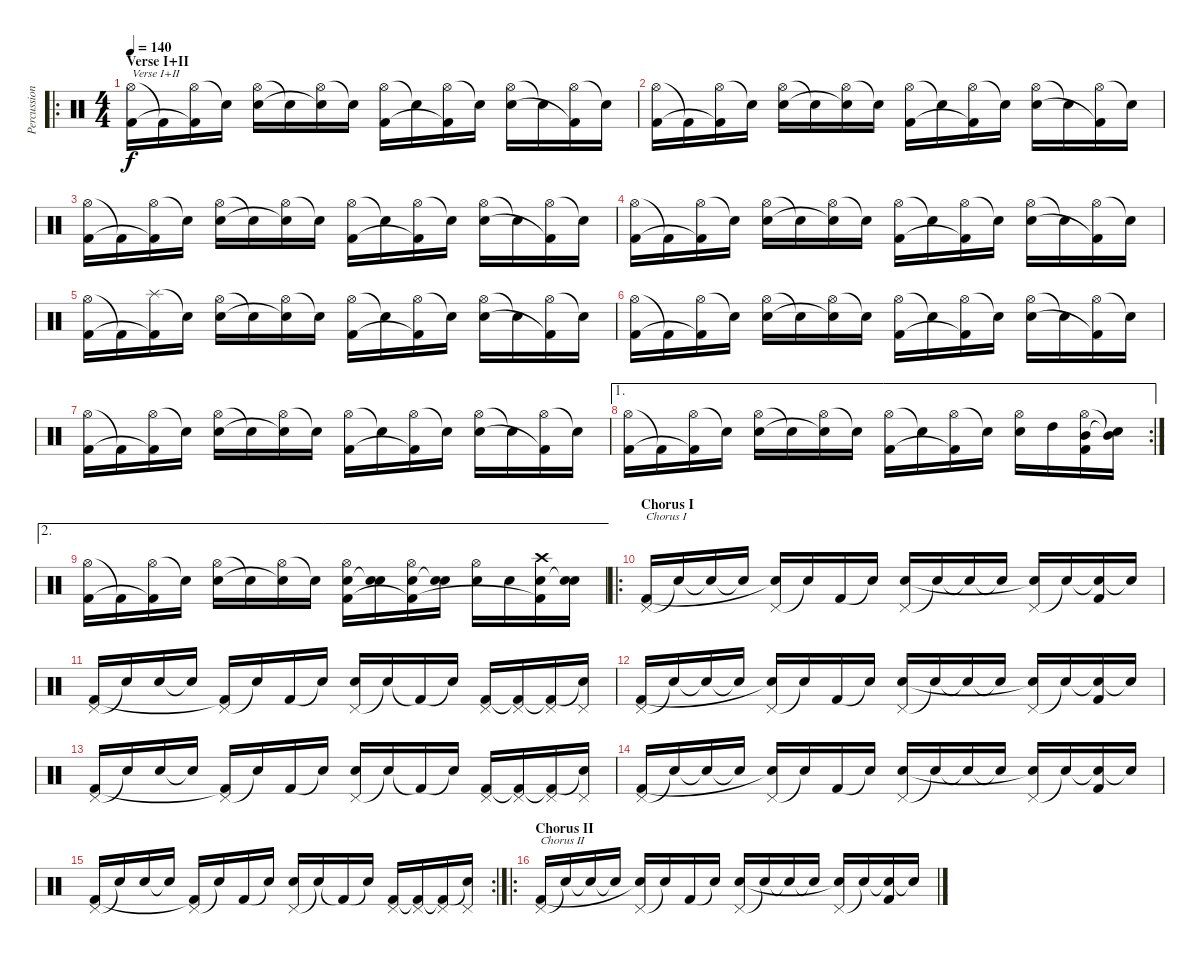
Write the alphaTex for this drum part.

\track ("Percussion" "Percussion") {instrument percussion}
\staff {score}
\articulation defaults
\ro
\ts (4 4)
\section ("" "Verse I+II")
\tempo 140
\clef neutral
\ks c
("Hi-Hat (open)" "Kick (hit) 2").16{txt "Verse I+II" dy f} "Kick (hit) 2"{t}.16 ("Hi-Hat (open)" "Kick (hit) 2"{t}).16 "Snare (hit)"{t}.16 ("Hi-Hat (open)" "Electric Snare (hit)").16 "Snare (hit)"{t}.16 ("Hi-Hat (open)" "Snare (hit)"{t}).16 "Snare (hit)"{t}.16 ("Hi-Hat (open)" "Kick (hit) 2").16 "Snare (hit)"{t}.16 ("Hi-Hat (open)" "Kick (hit) 2"{t}).16 "Snare (hit)"{t}.16 ("Hi-Hat (open)" "Electric Snare (hit)").16 "Snare (hit)"{t}.16 ("Hi-Hat (open)" "Kick (hit) 2"{t}).16 "Snare (hit)"{t}.16 |
("Hi-Hat (open)" "Kick (hit) 2").16 "Kick (hit) 2"{t}.16 ("Hi-Hat (open)" "Kick (hit) 2"{t}).16 "Snare (hit)"{t}.16 ("Hi-Hat (open)" "Electric Snare (hit)").16 "Snare (hit)"{t}.16 ("Hi-Hat (open)" "Snare (hit)"{t}).16 "Snare (hit)"{t}.16 ("Hi-Hat (open)" "Kick (hit) 2").16 "Snare (hit)"{t}.16 ("Hi-Hat (open)" "Kick (hit) 2"{t}).16 "Snare (hit)"{t}.16 ("Hi-Hat (open)" "Electric Snare (hit)").16 "Snare (hit)"{t}.16 ("Hi-Hat (open)" "Kick (hit) 2"{t}).16 "Snare (hit)"{t}.16 |
("Hi-Hat (open)" "Kick (hit) 2").16 "Kick (hit) 2"{t}.16 ("Hi-Hat (open)" "Kick (hit) 2"{t}).16 "Snare (hit)"{t}.16 ("Hi-Hat (open)" "Electric Snare (hit)").16 "Snare (hit)"{t}.16 ("Hi-Hat (open)" "Snare (hit)"{t}).16 "Snare (hit)"{t}.16 ("Hi-Hat (open)" "Kick (hit) 2").16 "Snare (hit)"{t}.16 ("Hi-Hat (open)" "Kick (hit) 2"{t}).16 "Snare (hit)"{t}.16 ("Hi-Hat (open)" "Electric Snare (hit)").16 "Snare (hit)"{t}.16 ("Hi-Hat (open)" "Kick (hit) 2"{t}).16 "Snare (hit)"{t}.16 |
("Hi-Hat (open)" "Kick (hit) 2").16 "Kick (hit) 2"{t}.16 ("Hi-Hat (open)" "Kick (hit) 2"{t}).16 "Snare (hit)"{t}.16 ("Hi-Hat (open)" "Electric Snare (hit)").16 "Snare (hit)"{t}.16 ("Hi-Hat (open)" "Snare (hit)"{t}).16 "Snare (hit)"{t}.16 ("Hi-Hat (open)" "Kick (hit) 2").16 "Snare (hit)"{t}.16 ("Hi-Hat (open)" "Kick (hit) 2"{t}).16 "Snare (hit)"{t}.16 ("Hi-Hat (open)" "Electric Snare (hit)").16 "Snare (hit)"{t}.16 ("Hi-Hat (open)" "Kick (hit) 2"{t}).16 "Snare (hit)"{t}.16 |
("Hi-Hat (open)" "Kick (hit) 2").16 "Kick (hit) 2"{t}.16 ("Splash (hit)" "Kick (hit) 2"{t}).16 "Snare (hit)"{t}.16 ("Hi-Hat (open)" "Electric Snare (hit)").16 "Snare (hit)"{t}.16 ("Hi-Hat (open)" "Snare (hit)"{t}).16 "Snare (hit)"{t}.16 ("Hi-Hat (open)" "Kick (hit) 2").16 "Snare (hit)"{t}.16 ("Hi-Hat (open)" "Kick (hit) 2"{t}).16 "Snare (hit)"{t}.16 ("Hi-Hat (open)" "Electric Snare (hit)").16 "Snare (hit)"{t}.16 ("Hi-Hat (open)" "Kick (hit) 2"{t}).16 "Snare (hit)"{t}.16 |
("Hi-Hat (open)" "Kick (hit) 2").16 "Kick (hit) 2"{t}.16 ("Hi-Hat (open)" "Kick (hit) 2"{t}).16 "Snare (hit)"{t}.16 ("Hi-Hat (open)" "Electric Snare (hit)").16 "Snare (hit)"{t}.16 ("Hi-Hat (open)" "Snare (hit)"{t}).16 "Snare (hit)"{t}.16 ("Hi-Hat (open)" "Kick (hit) 2").16 "Snare (hit)"{t}.16 ("Hi-Hat (open)" "Kick (hit) 2"{t}).16 "Snare (hit)"{t}.16 ("Hi-Hat (open)" "Electric Snare (hit)").16 "Snare (hit)"{t}.16 ("Hi-Hat (open)" "Kick (hit) 2"{t}).16 "Snare (hit)"{t}.16 |
("Hi-Hat (open)" "Kick (hit) 2").16 "Kick (hit) 2"{t}.16 ("Hi-Hat (open)" "Kick (hit) 2"{t}).16 "Snare (hit)"{t}.16 ("Hi-Hat (open)" "Electric Snare (hit)").16 "Snare (hit)"{t}.16 ("Hi-Hat (open)" "Snare (hit)"{t}).16 "Snare (hit)"{t}.16 ("Hi-Hat (open)" "Kick (hit) 2").16 "Snare (hit)"{t}.16 ("Hi-Hat (open)" "Kick (hit) 2"{t}).16 "Snare (hit)"{t}.16 ("Hi-Hat (open)" "Electric Snare (hit)").16 "Snare (hit)"{t}.16 ("Hi-Hat (open)" "Kick (hit) 2"{t}).16 "Snare (hit)"{t}.16 |
\ae 1
\rc 2
("Hi-Hat (open)" "Kick (hit) 2").16 "Kick (hit) 2"{t}.16 ("Hi-Hat (open)" "Kick (hit) 2"{t}).16 "Snare (hit)"{t}.16 ("Hi-Hat (open)" "Electric Snare (hit)").16 "Snare (hit)"{t}.16 ("Hi-Hat (open)" "Snare (hit)"{t}).16 "Snare (hit)"{t}.16 ("Hi-Hat (open)" "Kick (hit) 2").16 "Snare (hit)"{t}.16 ("Hi-Hat (open)" "Kick (hit) 2"{t}).16 "Snare (hit)"{t}.16 ("Hi-Hat (open)" "Electric Snare (hit)").16 "High Tom (hit)".16 ("Hi-Hat (open)" "Mid Tom (hit)" "Kick (hit) 2").16 ("Mid Tom (hit)"{t} "Snare (hit)"{t}).16 |
\ae 2
("Hi-Hat (open)" "Kick (hit) 2").16 "Kick (hit) 2"{t}.16 ("Hi-Hat (open)" "Kick (hit) 2"{t}).16 "Snare (hit)"{t}.16 ("Hi-Hat (open)" "Electric Snare (hit)").16 "Snare (hit)"{t}.16 ("Hi-Hat (open)" "Snare (hit)"{t}).16 "Snare (hit)"{t}.16 ("Hi-Hat (open)" "Electric Snare (hit)" "Kick (hit) 2").16 ("Electric Snare (hit)" "Snare (hit)"{t}).16 ("Hi-Hat (open)" "Electric Snare (hit)" "Kick (hit) 2"{t}).16 ("Electric Snare (hit)" "Snare (hit)"{t}).16 ("Hi-Hat (open)" "Electric Snare (hit)").16 "Electric Snare (hit)".16 ("Crash high (hit)" "Electric Snare (hit)" "Kick (hit) 2"{t}).16 ("Electric Snare (hit)" "Snare (hit)"{t}).16 |
\ro
\section ("" "Chorus I")
("Pedal Hi-Hat (hit)" "Kick (hit) 2").16{txt "Chorus I"} "Snare (hit)"{t}.16 "Snare (hit)"{t}.16 "Snare (hit)"{t}.16 ("Pedal Hi-Hat (hit)" "Snare (hit)"{t}).16 "Snare (hit)"{t}.16 "Kick (hit) 2".16 "Snare (hit)"{t}.16 ("Pedal Hi-Hat (hit)" "Electric Snare (hit)").16 "Snare (hit)"{t}.16 "Snare (hit)"{t}.16 "Snare (hit)"{t}.16 ("Pedal Hi-Hat (hit)" "Snare (hit)"{t}).16 "Snare (hit)"{t}.16 ("Snare (hit)"{t} "Kick (hit) 2").16 "Snare (hit)"{t}.16 |
("Pedal Hi-Hat (hit)" "Kick (hit) 2").16 "Snare (hit)"{t}.16 "Electric Snare (hit)".16 "Snare (hit)"{t}.16 ("Pedal Hi-Hat (hit)" "Kick (hit) 2"{t}).16 "Snare (hit)"{t}.16 "Kick (hit) 2".16 "Snare (hit)"{t}.16 ("Pedal Hi-Hat (hit)" "Electric Snare (hit)").16 "Snare (hit)"{t}.16 "Kick (hit) 2"{t}.16 "Snare (hit)"{t}.16 ("Pedal Hi-Hat (hit)" "Kick (hit) 2").16 ("Pedal Hi-Hat (hit)" "Kick (hit) 2"{t}).16 ("Pedal Hi-Hat (hit)" "Kick (hit) 2"{t}).16 ("Pedal Hi-Hat (hit)" "Snare (hit)"{t}).16 |
("Pedal Hi-Hat (hit)" "Kick (hit) 2").16 "Snare (hit)"{t}.16 "Snare (hit)"{t}.16 "Snare (hit)"{t}.16 ("Pedal Hi-Hat (hit)" "Snare (hit)"{t}).16 "Snare (hit)"{t}.16 "Kick (hit) 2".16 "Snare (hit)"{t}.16 ("Pedal Hi-Hat (hit)" "Electric Snare (hit)").16 "Snare (hit)"{t}.16 "Snare (hit)"{t}.16 "Snare (hit)"{t}.16 ("Pedal Hi-Hat (hit)" "Snare (hit)"{t}).16 "Snare (hit)"{t}.16 ("Snare (hit)"{t} "Kick (hit) 2").16 "Snare (hit)"{t}.16 |
("Pedal Hi-Hat (hit)" "Kick (hit) 2").16 "Snare (hit)"{t}.16 "Electric Snare (hit)".16 "Snare (hit)"{t}.16 ("Pedal Hi-Hat (hit)" "Kick (hit) 2"{t}).16 "Snare (hit)"{t}.16 "Kick (hit) 2".16 "Snare (hit)"{t}.16 ("Pedal Hi-Hat (hit)" "Electric Snare (hit)").16 "Snare (hit)"{t}.16 "Kick (hit) 2"{t}.16 "Snare (hit)"{t}.16 ("Pedal Hi-Hat (hit)" "Kick (hit) 2").16 ("Pedal Hi-Hat (hit)" "Kick (hit) 2"{t}).16 ("Pedal Hi-Hat (hit)" "Kick (hit) 2"{t}).16 ("Pedal Hi-Hat (hit)" "Snare (hit)"{t}).16 |
("Pedal Hi-Hat (hit)" "Kick (hit) 2").16 "Snare (hit)"{t}.16 "Snare (hit)"{t}.16 "Snare (hit)"{t}.16 ("Pedal Hi-Hat (hit)" "Snare (hit)"{t}).16 "Snare (hit)"{t}.16 "Kick (hit) 2".16 "Snare (hit)"{t}.16 ("Pedal Hi-Hat (hit)" "Electric Snare (hit)").16 "Snare (hit)"{t}.16 "Snare (hit)"{t}.16 "Snare (hit)"{t}.16 ("Pedal Hi-Hat (hit)" "Snare (hit)"{t}).16 "Snare (hit)"{t}.16 ("Snare (hit)"{t} "Kick (hit) 2").16 "Snare (hit)"{t}.16 |
\rc 2
("Pedal Hi-Hat (hit)" "Kick (hit) 2").16 "Snare (hit)"{t}.16 "Electric Snare (hit)".16 "Snare (hit)"{t}.16 ("Pedal Hi-Hat (hit)" "Kick (hit) 2"{t}).16 "Snare (hit)"{t}.16 "Kick (hit) 2".16 "Snare (hit)"{t}.16 ("Pedal Hi-Hat (hit)" "Electric Snare (hit)").16 "Snare (hit)"{t}.16 "Kick (hit) 2"{t}.16 "Snare (hit)"{t}.16 ("Pedal Hi-Hat (hit)" "Kick (hit) 2").16 ("Pedal Hi-Hat (hit)" "Kick (hit) 2"{t}).16 ("Pedal Hi-Hat (hit)" "Kick (hit) 2"{t}).16 ("Pedal Hi-Hat (hit)" "Snare (hit)"{t}).16 |
\ro
\section ("" "Chorus II")
("Pedal Hi-Hat (hit)" "Kick (hit) 2").16{txt "Chorus II"} "Snare (hit)"{t}.16 "Snare (hit)"{t}.16 "Snare (hit)"{t}.16 ("Pedal Hi-Hat (hit)" "Snare (hit)"{t}).16 "Snare (hit)"{t}.16 "Kick (hit) 2".16 "Snare (hit)"{t}.16 ("Pedal Hi-Hat (hit)" "Electric Snare (hit)").16 "Snare (hit)"{t}.16 "Snare (hit)"{t}.16 "Snare (hit)"{t}.16 ("Pedal Hi-Hat (hit)" "Snare (hit)"{t}).16 "Snare (hit)"{t}.16 ("Snare (hit)"{t} "Kick (hit) 2").16 "Snare (hit)"{t}.16
